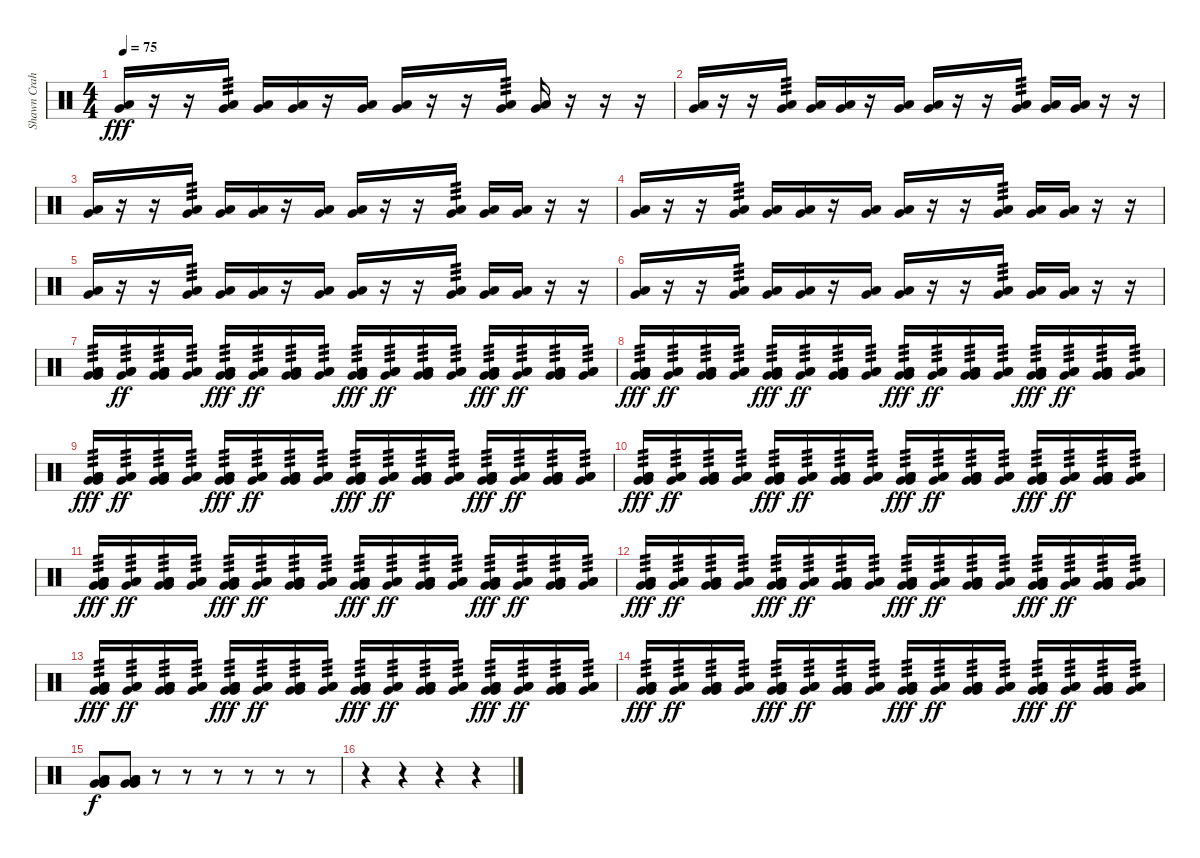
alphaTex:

\track ("Shawn Crahan" "Shawn Crah") {instrument percussion}
\staff {score}
\articulation defaults
\ts (4 4)
\tempo 75
\clef neutral
\ks c
("Very Low Tom (hit)" "Low Floor Tom (hit)").16{dy fff} r.16 r.16 ("Very Low Tom (hit)" "Low Floor Tom (hit)").16{tp 3} ("Very Low Tom (hit)" "Low Floor Tom (hit)").16 ("Very Low Tom (hit)" "Low Floor Tom (hit)").16 r.16 ("Very Low Tom (hit)" "Low Floor Tom (hit)").16 ("Very Low Tom (hit)" "Low Floor Tom (hit)").16 r.16 r.16 ("Very Low Tom (hit)" "Low Floor Tom (hit)").16{tp 3} ("Very Low Tom (hit)" "Low Floor Tom (hit)").16 r.16 r.16 r.16 |
("Very Low Tom (hit)" "Low Floor Tom (hit)").16 r.16 r.16 ("Very Low Tom (hit)" "Low Floor Tom (hit)").16{tp 3} ("Very Low Tom (hit)" "Low Floor Tom (hit)").16 ("Very Low Tom (hit)" "Low Floor Tom (hit)").16 r.16 ("Very Low Tom (hit)" "Low Floor Tom (hit)").16 ("Very Low Tom (hit)" "Low Floor Tom (hit)").16 r.16 r.16 ("Very Low Tom (hit)" "Low Floor Tom (hit)").16{tp 3} ("Very Low Tom (hit)" "Low Floor Tom (hit)").16 ("Very Low Tom (hit)" "Low Floor Tom (hit)").16 r.16 r.16 |
("Very Low Tom (hit)" "Low Floor Tom (hit)").16 r.16 r.16 ("Very Low Tom (hit)" "Low Floor Tom (hit)").16{tp 3} ("Very Low Tom (hit)" "Low Floor Tom (hit)").16 ("Very Low Tom (hit)" "Low Floor Tom (hit)").16 r.16 ("Very Low Tom (hit)" "Low Floor Tom (hit)").16 ("Very Low Tom (hit)" "Low Floor Tom (hit)").16 r.16 r.16 ("Very Low Tom (hit)" "Low Floor Tom (hit)").16{tp 3} ("Very Low Tom (hit)" "Low Floor Tom (hit)").16 ("Very Low Tom (hit)" "Low Floor Tom (hit)").16 r.16 r.16 |
("Very Low Tom (hit)" "Low Floor Tom (hit)").16 r.16 r.16 ("Very Low Tom (hit)" "Low Floor Tom (hit)").16{tp 3} ("Very Low Tom (hit)" "Low Floor Tom (hit)").16 ("Very Low Tom (hit)" "Low Floor Tom (hit)").16 r.16 ("Very Low Tom (hit)" "Low Floor Tom (hit)").16 ("Very Low Tom (hit)" "Low Floor Tom (hit)").16 r.16 r.16 ("Very Low Tom (hit)" "Low Floor Tom (hit)").16{tp 3} ("Very Low Tom (hit)" "Low Floor Tom (hit)").16 ("Very Low Tom (hit)" "Low Floor Tom (hit)").16 r.16 r.16 |
("Very Low Tom (hit)" "Low Floor Tom (hit)").16 r.16 r.16 ("Very Low Tom (hit)" "Low Floor Tom (hit)").16{tp 3} ("Very Low Tom (hit)" "Low Floor Tom (hit)").16 ("Very Low Tom (hit)" "Low Floor Tom (hit)").16 r.16 ("Very Low Tom (hit)" "Low Floor Tom (hit)").16 ("Very Low Tom (hit)" "Low Floor Tom (hit)").16 r.16 r.16 ("Very Low Tom (hit)" "Low Floor Tom (hit)").16{tp 3} ("Very Low Tom (hit)" "Low Floor Tom (hit)").16 ("Very Low Tom (hit)" "Low Floor Tom (hit)").16 r.16 r.16 |
("Very Low Tom (hit)" "Low Floor Tom (hit)").16 r.16 r.16 ("Very Low Tom (hit)" "Low Floor Tom (hit)").16{tp 3} ("Very Low Tom (hit)" "Low Floor Tom (hit)").16 ("Very Low Tom (hit)" "Low Floor Tom (hit)").16 r.16 ("Very Low Tom (hit)" "Low Floor Tom (hit)").16 ("Very Low Tom (hit)" "Low Floor Tom (hit)").16 r.16 r.16 ("Very Low Tom (hit)" "Low Floor Tom (hit)").16{tp 3} ("Very Low Tom (hit)" "Low Floor Tom (hit)").16 ("Very Low Tom (hit)" "Low Floor Tom (hit)").16 r.16 r.16 |
("Very Low Tom (hit)" "Low Floor Tom (hit)" "Low Floor Tom (hit)" "Very Low Tom (hit)" "Low Floor Tom (hit)").16{tp 3} ("Very Low Tom (hit)" "Low Floor Tom (hit)" "Low Floor Tom (hit)").16{tp 3 dy ff} ("Very Low Tom (hit)" "Low Floor Tom (hit)" "Low Floor Tom (hit)" "Very Low Tom (hit)" "Low Floor Tom (hit)").16{tp 3} ("Very Low Tom (hit)" "Low Floor Tom (hit)" "Low Floor Tom (hit)").16{tp 3} ("Very Low Tom (hit)" "Low Floor Tom (hit)" "Low Floor Tom (hit)" "Very Low Tom (hit)" "Low Floor Tom (hit)").16{tp 3 dy fff} ("Very Low Tom (hit)" "Low Floor Tom (hit)" "Low Floor Tom (hit)").16{tp 3 dy ff} ("Very Low Tom (hit)" "Low Floor Tom (hit)" "Low Floor Tom (hit)" "Very Low Tom (hit)" "Low Floor Tom (hit)").16{tp 3} ("Very Low Tom (hit)" "Low Floor Tom (hit)" "Low Floor Tom (hit)").16{tp 3} ("Very Low Tom (hit)" "Low Floor Tom (hit)" "Low Floor Tom (hit)" "Very Low Tom (hit)" "Low Floor Tom (hit)").16{tp 3 dy fff} ("Very Low Tom (hit)" "Low Floor Tom (hit)" "Low Floor Tom (hit)").16{tp 3 dy ff} ("Very Low Tom (hit)" "Low Floor Tom (hit)" "Low Floor Tom (hit)" "Very Low Tom (hit)" "Low Floor Tom (hit)").16{tp 3} ("Very Low Tom (hit)" "Low Floor Tom (hit)" "Low Floor Tom (hit)").16{tp 3} ("Very Low Tom (hit)" "Low Floor Tom (hit)" "Low Floor Tom (hit)" "Very Low Tom (hit)" "Low Floor Tom (hit)").16{tp 3 dy fff} ("Very Low Tom (hit)" "Low Floor Tom (hit)" "Low Floor Tom (hit)").16{tp 3 dy ff} ("Very Low Tom (hit)" "Low Floor Tom (hit)" "Low Floor Tom (hit)" "Very Low Tom (hit)" "Low Floor Tom (hit)").16{tp 3} ("Very Low Tom (hit)" "Low Floor Tom (hit)" "Low Floor Tom (hit)").16{tp 3} |
("Very Low Tom (hit)" "Low Floor Tom (hit)" "Low Floor Tom (hit)" "Very Low Tom (hit)" "Low Floor Tom (hit)").16{tp 3 dy fff} ("Very Low Tom (hit)" "Low Floor Tom (hit)" "Low Floor Tom (hit)").16{tp 3 dy ff} ("Very Low Tom (hit)" "Low Floor Tom (hit)" "Low Floor Tom (hit)" "Very Low Tom (hit)" "Low Floor Tom (hit)").16{tp 3} ("Very Low Tom (hit)" "Low Floor Tom (hit)" "Low Floor Tom (hit)").16{tp 3} ("Very Low Tom (hit)" "Low Floor Tom (hit)" "Low Floor Tom (hit)" "Very Low Tom (hit)" "Low Floor Tom (hit)").16{tp 3 dy fff} ("Very Low Tom (hit)" "Low Floor Tom (hit)" "Low Floor Tom (hit)").16{tp 3 dy ff} ("Very Low Tom (hit)" "Low Floor Tom (hit)" "Low Floor Tom (hit)" "Very Low Tom (hit)" "Low Floor Tom (hit)").16{tp 3} ("Very Low Tom (hit)" "Low Floor Tom (hit)" "Low Floor Tom (hit)").16{tp 3} ("Very Low Tom (hit)" "Low Floor Tom (hit)" "Low Floor Tom (hit)" "Very Low Tom (hit)" "Low Floor Tom (hit)").16{tp 3 dy fff} ("Very Low Tom (hit)" "Low Floor Tom (hit)" "Low Floor Tom (hit)").16{tp 3 dy ff} ("Very Low Tom (hit)" "Low Floor Tom (hit)" "Low Floor Tom (hit)" "Very Low Tom (hit)" "Low Floor Tom (hit)").16{tp 3} ("Very Low Tom (hit)" "Low Floor Tom (hit)" "Low Floor Tom (hit)").16{tp 3} ("Very Low Tom (hit)" "Low Floor Tom (hit)" "Low Floor Tom (hit)" "Very Low Tom (hit)" "Low Floor Tom (hit)").16{tp 3 dy fff} ("Very Low Tom (hit)" "Low Floor Tom (hit)" "Low Floor Tom (hit)").16{tp 3 dy ff} ("Very Low Tom (hit)" "Low Floor Tom (hit)" "Low Floor Tom (hit)" "Very Low Tom (hit)" "Low Floor Tom (hit)").16{tp 3} ("Very Low Tom (hit)" "Low Floor Tom (hit)" "Low Floor Tom (hit)").16{tp 3} |
("Very Low Tom (hit)" "Low Floor Tom (hit)" "Low Floor Tom (hit)" "Very Low Tom (hit)" "Low Floor Tom (hit)").16{tp 3 dy fff} ("Very Low Tom (hit)" "Low Floor Tom (hit)" "Low Floor Tom (hit)").16{tp 3 dy ff} ("Very Low Tom (hit)" "Low Floor Tom (hit)" "Low Floor Tom (hit)" "Very Low Tom (hit)" "Low Floor Tom (hit)").16{tp 3} ("Very Low Tom (hit)" "Low Floor Tom (hit)" "Low Floor Tom (hit)").16{tp 3} ("Very Low Tom (hit)" "Low Floor Tom (hit)" "Low Floor Tom (hit)" "Very Low Tom (hit)" "Low Floor Tom (hit)").16{tp 3 dy fff} ("Very Low Tom (hit)" "Low Floor Tom (hit)" "Low Floor Tom (hit)").16{tp 3 dy ff} ("Very Low Tom (hit)" "Low Floor Tom (hit)" "Low Floor Tom (hit)" "Very Low Tom (hit)" "Low Floor Tom (hit)").16{tp 3} ("Very Low Tom (hit)" "Low Floor Tom (hit)" "Low Floor Tom (hit)").16{tp 3} ("Very Low Tom (hit)" "Low Floor Tom (hit)" "Low Floor Tom (hit)" "Very Low Tom (hit)" "Low Floor Tom (hit)").16{tp 3 dy fff} ("Very Low Tom (hit)" "Low Floor Tom (hit)" "Low Floor Tom (hit)").16{tp 3 dy ff} ("Very Low Tom (hit)" "Low Floor Tom (hit)" "Low Floor Tom (hit)" "Very Low Tom (hit)" "Low Floor Tom (hit)").16{tp 3} ("Very Low Tom (hit)" "Low Floor Tom (hit)" "Low Floor Tom (hit)").16{tp 3} ("Very Low Tom (hit)" "Low Floor Tom (hit)" "Low Floor Tom (hit)" "Very Low Tom (hit)" "Low Floor Tom (hit)").16{tp 3 dy fff} ("Very Low Tom (hit)" "Low Floor Tom (hit)" "Low Floor Tom (hit)").16{tp 3 dy ff} ("Very Low Tom (hit)" "Low Floor Tom (hit)" "Low Floor Tom (hit)" "Very Low Tom (hit)" "Low Floor Tom (hit)").16{tp 3} ("Very Low Tom (hit)" "Low Floor Tom (hit)" "Low Floor Tom (hit)").16{tp 3} |
("Very Low Tom (hit)" "Low Floor Tom (hit)" "Low Floor Tom (hit)" "Very Low Tom (hit)" "Low Floor Tom (hit)").16{tp 3 dy fff} ("Very Low Tom (hit)" "Low Floor Tom (hit)" "Low Floor Tom (hit)").16{tp 3 dy ff} ("Very Low Tom (hit)" "Low Floor Tom (hit)" "Low Floor Tom (hit)" "Very Low Tom (hit)" "Low Floor Tom (hit)").16{tp 3} ("Very Low Tom (hit)" "Low Floor Tom (hit)" "Low Floor Tom (hit)").16{tp 3} ("Very Low Tom (hit)" "Low Floor Tom (hit)" "Low Floor Tom (hit)" "Very Low Tom (hit)" "Low Floor Tom (hit)").16{tp 3 dy fff} ("Very Low Tom (hit)" "Low Floor Tom (hit)" "Low Floor Tom (hit)").16{tp 3 dy ff} ("Very Low Tom (hit)" "Low Floor Tom (hit)" "Low Floor Tom (hit)" "Very Low Tom (hit)" "Low Floor Tom (hit)").16{tp 3} ("Very Low Tom (hit)" "Low Floor Tom (hit)" "Low Floor Tom (hit)").16{tp 3} ("Very Low Tom (hit)" "Low Floor Tom (hit)" "Low Floor Tom (hit)" "Very Low Tom (hit)" "Low Floor Tom (hit)").16{tp 3 dy fff} ("Very Low Tom (hit)" "Low Floor Tom (hit)" "Low Floor Tom (hit)").16{tp 3 dy ff} ("Very Low Tom (hit)" "Low Floor Tom (hit)" "Low Floor Tom (hit)" "Very Low Tom (hit)" "Low Floor Tom (hit)").16{tp 3} ("Very Low Tom (hit)" "Low Floor Tom (hit)" "Low Floor Tom (hit)").16{tp 3} ("Very Low Tom (hit)" "Low Floor Tom (hit)" "Low Floor Tom (hit)" "Very Low Tom (hit)" "Low Floor Tom (hit)").16{tp 3 dy fff} ("Very Low Tom (hit)" "Low Floor Tom (hit)" "Low Floor Tom (hit)").16{tp 3 dy ff} ("Very Low Tom (hit)" "Low Floor Tom (hit)" "Low Floor Tom (hit)" "Very Low Tom (hit)" "Low Floor Tom (hit)").16{tp 3} ("Very Low Tom (hit)" "Low Floor Tom (hit)" "Low Floor Tom (hit)").16{tp 3} |
("Very Low Tom (hit)" "Low Floor Tom (hit)" "Low Floor Tom (hit)" "Very Low Tom (hit)" "Low Floor Tom (hit)").16{tp 3 dy fff} ("Very Low Tom (hit)" "Low Floor Tom (hit)" "Low Floor Tom (hit)").16{tp 3 dy ff} ("Very Low Tom (hit)" "Low Floor Tom (hit)" "Low Floor Tom (hit)" "Very Low Tom (hit)" "Low Floor Tom (hit)").16{tp 3} ("Very Low Tom (hit)" "Low Floor Tom (hit)" "Low Floor Tom (hit)").16{tp 3} ("Very Low Tom (hit)" "Low Floor Tom (hit)" "Low Floor Tom (hit)" "Very Low Tom (hit)" "Low Floor Tom (hit)").16{tp 3 dy fff} ("Very Low Tom (hit)" "Low Floor Tom (hit)" "Low Floor Tom (hit)").16{tp 3 dy ff} ("Very Low Tom (hit)" "Low Floor Tom (hit)" "Low Floor Tom (hit)" "Very Low Tom (hit)" "Low Floor Tom (hit)").16{tp 3} ("Very Low Tom (hit)" "Low Floor Tom (hit)" "Low Floor Tom (hit)").16{tp 3} ("Very Low Tom (hit)" "Low Floor Tom (hit)" "Low Floor Tom (hit)" "Very Low Tom (hit)" "Low Floor Tom (hit)").16{tp 3 dy fff} ("Very Low Tom (hit)" "Low Floor Tom (hit)" "Low Floor Tom (hit)").16{tp 3 dy ff} ("Very Low Tom (hit)" "Low Floor Tom (hit)" "Low Floor Tom (hit)" "Very Low Tom (hit)" "Low Floor Tom (hit)").16{tp 3} ("Very Low Tom (hit)" "Low Floor Tom (hit)" "Low Floor Tom (hit)").16{tp 3} ("Very Low Tom (hit)" "Low Floor Tom (hit)" "Low Floor Tom (hit)" "Very Low Tom (hit)" "Low Floor Tom (hit)").16{tp 3 dy fff} ("Very Low Tom (hit)" "Low Floor Tom (hit)" "Low Floor Tom (hit)").16{tp 3 dy ff} ("Very Low Tom (hit)" "Low Floor Tom (hit)" "Low Floor Tom (hit)" "Very Low Tom (hit)" "Low Floor Tom (hit)").16{tp 3} ("Very Low Tom (hit)" "Low Floor Tom (hit)" "Low Floor Tom (hit)").16{tp 3} |
("Very Low Tom (hit)" "Low Floor Tom (hit)" "Low Floor Tom (hit)" "Very Low Tom (hit)" "Low Floor Tom (hit)").16{tp 3 dy fff} ("Very Low Tom (hit)" "Low Floor Tom (hit)" "Low Floor Tom (hit)").16{tp 3 dy ff} ("Very Low Tom (hit)" "Low Floor Tom (hit)" "Low Floor Tom (hit)" "Very Low Tom (hit)" "Low Floor Tom (hit)").16{tp 3} ("Very Low Tom (hit)" "Low Floor Tom (hit)" "Low Floor Tom (hit)").16{tp 3} ("Very Low Tom (hit)" "Low Floor Tom (hit)" "Low Floor Tom (hit)" "Very Low Tom (hit)" "Low Floor Tom (hit)").16{tp 3 dy fff} ("Very Low Tom (hit)" "Low Floor Tom (hit)" "Low Floor Tom (hit)").16{tp 3 dy ff} ("Very Low Tom (hit)" "Low Floor Tom (hit)" "Low Floor Tom (hit)" "Very Low Tom (hit)" "Low Floor Tom (hit)").16{tp 3} ("Very Low Tom (hit)" "Low Floor Tom (hit)" "Low Floor Tom (hit)").16{tp 3} ("Very Low Tom (hit)" "Low Floor Tom (hit)" "Low Floor Tom (hit)" "Very Low Tom (hit)" "Low Floor Tom (hit)").16{tp 3 dy fff} ("Very Low Tom (hit)" "Low Floor Tom (hit)" "Low Floor Tom (hit)").16{tp 3 dy ff} ("Very Low Tom (hit)" "Low Floor Tom (hit)" "Low Floor Tom (hit)" "Very Low Tom (hit)" "Low Floor Tom (hit)").16{tp 3} ("Very Low Tom (hit)" "Low Floor Tom (hit)" "Low Floor Tom (hit)").16{tp 3} ("Very Low Tom (hit)" "Low Floor Tom (hit)" "Low Floor Tom (hit)" "Very Low Tom (hit)" "Low Floor Tom (hit)").16{tp 3 dy fff} ("Very Low Tom (hit)" "Low Floor Tom (hit)" "Low Floor Tom (hit)").16{tp 3 dy ff} ("Very Low Tom (hit)" "Low Floor Tom (hit)" "Low Floor Tom (hit)" "Very Low Tom (hit)" "Low Floor Tom (hit)").16{tp 3} ("Very Low Tom (hit)" "Low Floor Tom (hit)" "Low Floor Tom (hit)").16{tp 3} |
("Very Low Tom (hit)" "Low Floor Tom (hit)" "Low Floor Tom (hit)" "Very Low Tom (hit)" "Low Floor Tom (hit)").16{tp 3 dy fff} ("Very Low Tom (hit)" "Low Floor Tom (hit)" "Low Floor Tom (hit)").16{tp 3 dy ff} ("Very Low Tom (hit)" "Low Floor Tom (hit)" "Low Floor Tom (hit)" "Very Low Tom (hit)" "Low Floor Tom (hit)").16{tp 3} ("Very Low Tom (hit)" "Low Floor Tom (hit)" "Low Floor Tom (hit)").16{tp 3} ("Very Low Tom (hit)" "Low Floor Tom (hit)" "Low Floor Tom (hit)" "Very Low Tom (hit)" "Low Floor Tom (hit)").16{tp 3 dy fff} ("Very Low Tom (hit)" "Low Floor Tom (hit)" "Low Floor Tom (hit)").16{tp 3 dy ff} ("Very Low Tom (hit)" "Low Floor Tom (hit)" "Low Floor Tom (hit)" "Very Low Tom (hit)" "Low Floor Tom (hit)").16{tp 3} ("Very Low Tom (hit)" "Low Floor Tom (hit)" "Low Floor Tom (hit)").16{tp 3} ("Very Low Tom (hit)" "Low Floor Tom (hit)" "Low Floor Tom (hit)" "Very Low Tom (hit)" "Low Floor Tom (hit)").16{tp 3 dy fff} ("Very Low Tom (hit)" "Low Floor Tom (hit)" "Low Floor Tom (hit)").16{tp 3 dy ff} ("Very Low Tom (hit)" "Low Floor Tom (hit)" "Low Floor Tom (hit)" "Very Low Tom (hit)" "Low Floor Tom (hit)").16{tp 3} ("Very Low Tom (hit)" "Low Floor Tom (hit)" "Low Floor Tom (hit)").16{tp 3} ("Very Low Tom (hit)" "Low Floor Tom (hit)" "Low Floor Tom (hit)" "Very Low Tom (hit)" "Low Floor Tom (hit)").16{tp 3 dy fff} ("Very Low Tom (hit)" "Low Floor Tom (hit)" "Low Floor Tom (hit)").16{tp 3 dy ff} ("Very Low Tom (hit)" "Low Floor Tom (hit)" "Low Floor Tom (hit)" "Very Low Tom (hit)" "Low Floor Tom (hit)").16{tp 3} ("Very Low Tom (hit)" "Low Floor Tom (hit)" "Low Floor Tom (hit)").16{tp 3} |
("Very Low Tom (hit)" "Low Floor Tom (hit)" "Low Floor Tom (hit)" "Very Low Tom (hit)" "Low Floor Tom (hit)").16{tp 3 dy fff} ("Very Low Tom (hit)" "Low Floor Tom (hit)" "Low Floor Tom (hit)").16{tp 3 dy ff} ("Very Low Tom (hit)" "Low Floor Tom (hit)" "Low Floor Tom (hit)" "Very Low Tom (hit)" "Low Floor Tom (hit)").16{tp 3} ("Very Low Tom (hit)" "Low Floor Tom (hit)" "Low Floor Tom (hit)").16{tp 3} ("Very Low Tom (hit)" "Low Floor Tom (hit)" "Low Floor Tom (hit)" "Very Low Tom (hit)" "Low Floor Tom (hit)").16{tp 3 dy fff} ("Very Low Tom (hit)" "Low Floor Tom (hit)" "Low Floor Tom (hit)").16{tp 3 dy ff} ("Very Low Tom (hit)" "Low Floor Tom (hit)" "Low Floor Tom (hit)" "Very Low Tom (hit)" "Low Floor Tom (hit)").16{tp 3} ("Very Low Tom (hit)" "Low Floor Tom (hit)" "Low Floor Tom (hit)").16{tp 3} ("Very Low Tom (hit)" "Low Floor Tom (hit)" "Low Floor Tom (hit)" "Very Low Tom (hit)" "Low Floor Tom (hit)").16{tp 3 dy fff} ("Very Low Tom (hit)" "Low Floor Tom (hit)" "Low Floor Tom (hit)").16{tp 3 dy ff} ("Very Low Tom (hit)" "Low Floor Tom (hit)" "Low Floor Tom (hit)" "Very Low Tom (hit)" "Low Floor Tom (hit)").16{tp 3} ("Very Low Tom (hit)" "Low Floor Tom (hit)" "Low Floor Tom (hit)").16{tp 3} ("Very Low Tom (hit)" "Low Floor Tom (hit)" "Low Floor Tom (hit)" "Very Low Tom (hit)" "Low Floor Tom (hit)").16{tp 3 dy fff} ("Very Low Tom (hit)" "Low Floor Tom (hit)" "Low Floor Tom (hit)").16{tp 3 dy ff} ("Very Low Tom (hit)" "Low Floor Tom (hit)" "Low Floor Tom (hit)" "Very Low Tom (hit)" "Low Floor Tom (hit)").16{tp 3} ("Very Low Tom (hit)" "Low Floor Tom (hit)" "Low Floor Tom (hit)").16{tp 3} |
("Very Low Tom (hit)" "Very Low Tom (hit)" "Low Floor Tom (hit)" "Low Floor Tom (hit)").8{dy f} ("Very Low Tom (hit)" "Very Low Tom (hit)" "Low Floor Tom (hit)" "Low Floor Tom (hit)").8 r.8 r.8 r.8 r.8 r.8 r.8 |
r.4 r.4 r.4 r.4
